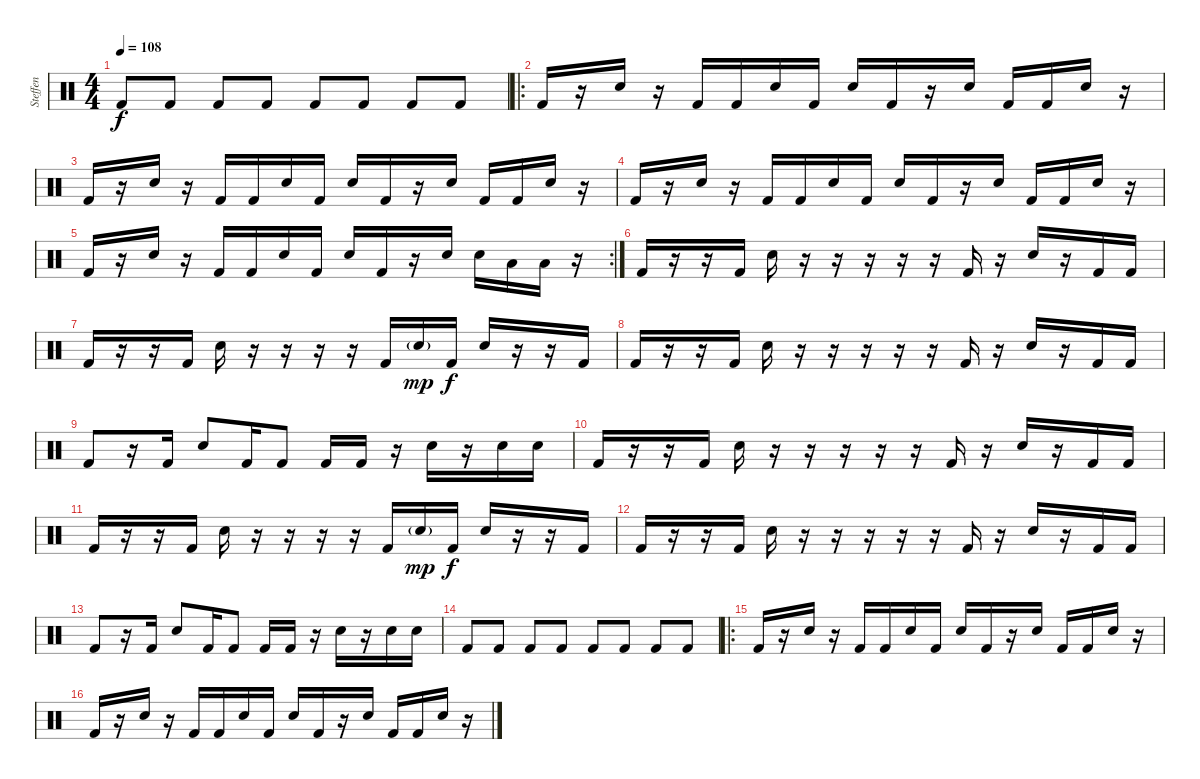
\track ("Steffen" "Steffen") {instrument percussion}
\staff {score}
\articulation defaults
\ts (4 4)
\tempo 108
\clef neutral
\ks c "Kick (hit) 2".8{dy f} "Kick (hit) 2".8 "Kick (hit) 2".8 "Kick (hit) 2".8 "Kick (hit) 2".8 "Kick (hit) 2".8 "Kick (hit) 2".8 "Kick (hit) 2".8
|
\ro "Kick (hit) 2".16
r.16 "Snare (hit) 2".16 r.16 "Kick (hit) 2".16 "Kick (hit) 2".16 "Snare (hit) 2".16 "Kick (hit) 2".16 "Snare (hit) 2".16 "Kick (hit) 2".16 r.16 "Snare (hit) 2".16 "Kick (hit) 2".16 "Kick (hit) 2".16 "Snare (hit) 2".16 r.16 |
"Kick (hit) 2".16 r.16 "Snare (hit) 2".16 r.16 "Kick (hit) 2".16 "Kick (hit) 2".16 "Snare (hit) 2".16 "Kick (hit) 2".16 "Snare (hit) 2".16 "Kick (hit) 2".16 r.16 "Snare (hit) 2".16 "Kick (hit) 2".16 "Kick (hit) 2".16 "Snare (hit) 2".16 r.16 |
"Kick (hit) 2".16 r.16 "Snare (hit) 2".16 r.16 "Kick (hit) 2".16 "Kick (hit) 2".16 "Snare (hit) 2".16 "Kick (hit) 2".16 "Snare (hit) 2".16 "Kick (hit) 2".16 r.16 "Snare (hit) 2".16 "Kick (hit) 2".16 "Kick (hit) 2".16 "Snare (hit) 2".16 r.16 |
\rc 2 "Kick (hit) 2".16
r.16 "Snare (hit) 2".16 r.16 "Kick (hit) 2".16 "Kick (hit) 2".16 "Snare (hit) 2".16 "Kick (hit) 2".16 "Snare (hit) 2".16 "Kick (hit) 2".16 r.16 "Snare (hit) 2".16 "Snare (hit) 2".16 "Low Tom (hit)".16 "Low Tom (hit)".16 r.16 |
"Kick (hit) 2".16 r.16 r.16 "Kick (hit) 2".16 "Snare (hit) 2".16 r.16 r.16 r.16 r.16 r.16 "Kick (hit) 2".16 r.16 "Snare (hit) 2".16 r.16 "Kick (hit) 2".16 "Kick (hit) 2".16 |
"Kick (hit) 2".16 r.16 r.16 "Kick (hit) 2".16 "Snare (hit) 2".16 r.16 r.16 r.16 r.16 "Kick (hit) 2".16 "Snare (hit) 2"{g}.16{dy mp} "Kick (hit) 2".16{dy f} "Snare (hit) 2".16 r.16 r.16 "Kick (hit) 2".16 |
"Kick (hit) 2".16 r.16 r.16 "Kick (hit) 2".16 "Snare (hit) 2".16 r.16 r.16 r.16 r.16 r.16 "Kick (hit) 2".16 r.16 "Snare (hit) 2".16 r.16 "Kick (hit) 2".16 "Kick (hit) 2".16 |
"Kick (hit) 2".8 r.16 "Kick (hit) 2".16 "Snare (hit) 2".8 "Kick (hit) 2".16 "Kick (hit) 2".8 "Kick (hit) 2".16 "Kick (hit) 2".16 r.16 "Snare (hit) 2".16 r.16 "Snare (hit) 2".16 "Snare (hit) 2".16 |
"Kick (hit) 2".16 r.16 r.16 "Kick (hit) 2".16 "Snare (hit) 2".16 r.16 r.16 r.16 r.16 r.16 "Kick (hit) 2".16 r.16 "Snare (hit) 2".16 r.16 "Kick (hit) 2".16 "Kick (hit) 2".16 |
"Kick (hit) 2".16 r.16 r.16 "Kick (hit) 2".16 "Snare (hit) 2".16 r.16 r.16 r.16 r.16 "Kick (hit) 2".16 "Snare (hit) 2"{g}.16{dy mp} "Kick (hit) 2".16{dy f} "Snare (hit) 2".16 r.16 r.16 "Kick (hit) 2".16 |
"Kick (hit) 2".16 r.16 r.16 "Kick (hit) 2".16 "Snare (hit) 2".16 r.16 r.16 r.16 r.16 r.16 "Kick (hit) 2".16 r.16 "Snare (hit) 2".16 r.16 "Kick (hit) 2".16 "Kick (hit) 2".16 |
"Kick (hit) 2".8 r.16 "Kick (hit) 2".16 "Snare (hit) 2".8 "Kick (hit) 2".16 "Kick (hit) 2".8 "Kick (hit) 2".16 "Kick (hit) 2".16 r.16 "Snare (hit) 2".16 r.16 "Snare (hit) 2".16 "Snare (hit) 2".16 |
"Kick (hit) 2".8 "Kick (hit) 2".8 "Kick (hit) 2".8 "Kick (hit) 2".8 "Kick (hit) 2".8 "Kick (hit) 2".8 "Kick (hit) 2".8 "Kick (hit) 2".8 |
\ro "Kick (hit) 2".16
r.16 "Snare (hit) 2".16 r.16 "Kick (hit) 2".16 "Kick (hit) 2".16 "Snare (hit) 2".16 "Kick (hit) 2".16 "Snare (hit) 2".16 "Kick (hit) 2".16 r.16 "Snare (hit) 2".16 "Kick (hit) 2".16 "Kick (hit) 2".16 "Snare (hit) 2".16 r.16 |
"Kick (hit) 2".16 r.16 "Snare (hit) 2".16 r.16 "Kick (hit) 2".16 "Kick (hit) 2".16 "Snare (hit) 2".16 "Kick (hit) 2".16 "Snare (hit) 2".16 "Kick (hit) 2".16 r.16 "Snare (hit) 2".16 "Kick (hit) 2".16 "Kick (hit) 2".16 "Snare (hit) 2".16 r.16
